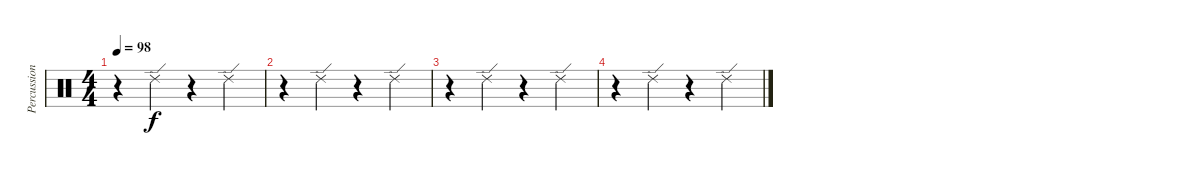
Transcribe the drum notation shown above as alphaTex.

\track ("Percussion" "Percussion") {instrument percussion}
\staff {score}
\articulation defaults
\ts (4 4)
\tempo 98
\clef neutral
\ks c
r.4{dy f} "Ride (edge) 2".4 r.4 "Ride (edge) 2".4 |
r.4 "Ride (edge) 2".4 r.4 "Ride (edge) 2".4 |
r.4 "Ride (edge) 2".4 r.4 "Ride (edge) 2".4 |
r.4 "Ride (edge) 2".4 r.4 "Ride (edge) 2".4
